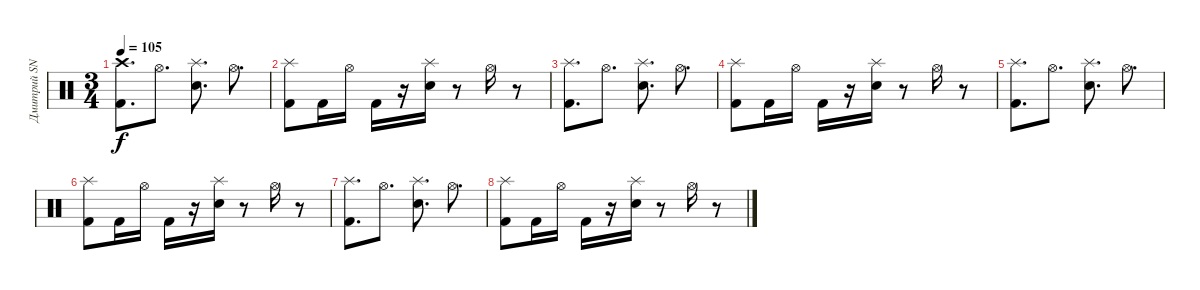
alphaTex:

\track ("Дмитрий SNAKE Хакимов" "Дмитрий SN") {instrument percussion}
\staff {score}
\articulation defaults
\ts (3 4)
\tempo 105
\clef neutral
\ks c
("Crash high (hit)" "Kick (hit) 2").8{d dy f} "Hi-Hat (open)".8{d} ("Splash (hit)" "Snare (hit) 2").8{d} "Hi-Hat (open)".8{d} |
("Splash (hit)" "Kick (hit) 2").8 "Kick (hit) 2".16 "Hi-Hat (open)".16 "Kick (hit) 2".16 r.16 ("Splash (hit)" "Snare (hit) 2").16 r.8 "Hi-Hat (open)".16 r.8 |
("Splash (hit)" "Kick (hit) 2").8{d} "Hi-Hat (open)".8{d} ("Splash (hit)" "Snare (hit) 2").8{d} "Hi-Hat (open)".8{d} |
("Splash (hit)" "Kick (hit) 2").8 "Kick (hit) 2".16 "Hi-Hat (open)".16 "Kick (hit) 2".16 r.16 ("Splash (hit)" "Snare (hit) 2").16 r.8 "Hi-Hat (open)".16 r.8 |
("Splash (hit)" "Kick (hit) 2").8{d} "Hi-Hat (open)".8{d} ("Splash (hit)" "Snare (hit) 2").8{d} "Hi-Hat (open)".8{d} |
("Splash (hit)" "Kick (hit) 2").8 "Kick (hit) 2".16 "Hi-Hat (open)".16 "Kick (hit) 2".16 r.16 ("Splash (hit)" "Snare (hit) 2").16 r.8 "Hi-Hat (open)".16 r.8 |
("Splash (hit)" "Kick (hit) 2").8{d} "Hi-Hat (open)".8{d} ("Splash (hit)" "Snare (hit) 2").8{d} "Hi-Hat (open)".8{d} |
("Splash (hit)" "Kick (hit) 2").8 "Kick (hit) 2".16 "Hi-Hat (open)".16 "Kick (hit) 2".16 r.16 ("Splash (hit)" "Snare (hit) 2").16 r.8 "Hi-Hat (open)".16 r.8
